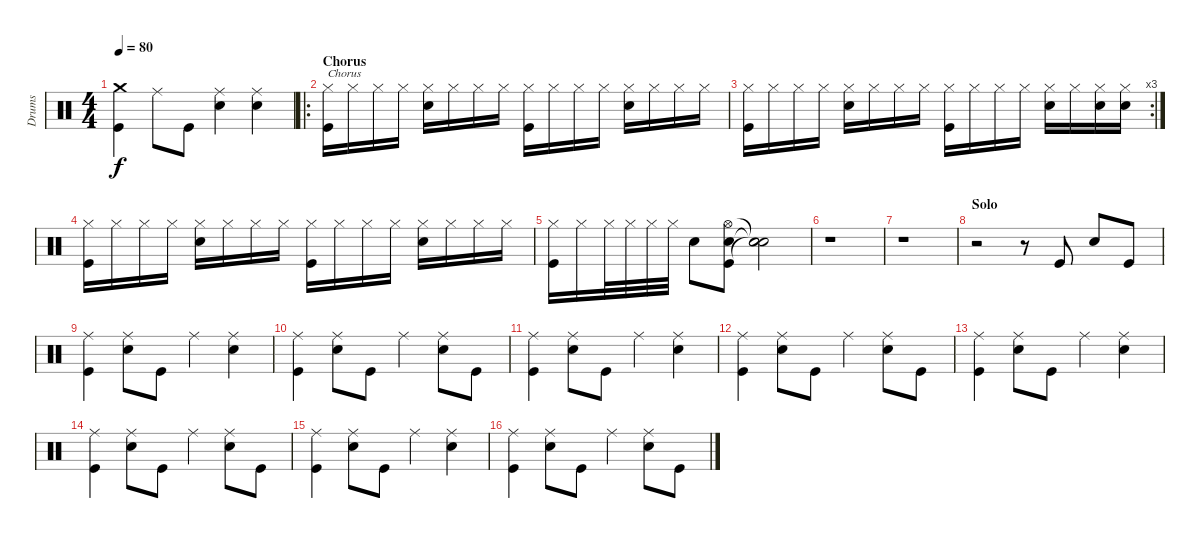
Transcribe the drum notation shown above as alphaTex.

\track ("Drums" "Drums") {instrument percussion}
\staff {score}
\articulation defaults
\ts (4 4)
\tempo 80
\clef neutral
\ks c
("Crash medium (hit)" "Kick (hit)").4{dy f} "Ride (middle)".8 "Kick (hit)".8 ("Ride (middle)" "Snare (hit) 2").4 ("Ride (middle)" "Snare (hit) 2").4 |
\ro
\section ("" "Chorus")
("Hi-Hat (closed)" "Kick (hit)").16{txt "Chorus"} "Hi-Hat (closed)".16 "Hi-Hat (closed)".16 "Hi-Hat (closed)".16 ("Hi-Hat (closed)" "Snare (hit) 2").16 "Hi-Hat (closed)".16 "Hi-Hat (closed)".16 "Hi-Hat (closed)".16 ("Hi-Hat (closed)" "Kick (hit)").16 "Hi-Hat (closed)".16 "Hi-Hat (closed)".16 "Hi-Hat (closed)".16 ("Hi-Hat (closed)" "Snare (hit) 2").16 "Hi-Hat (closed)".16 "Hi-Hat (closed)".16 "Hi-Hat (closed)".16 |
\rc 3
("Hi-Hat (closed)" "Kick (hit)").16 "Hi-Hat (closed)".16 "Hi-Hat (closed)".16 "Hi-Hat (closed)".16 ("Hi-Hat (closed)" "Snare (hit) 2").16 "Hi-Hat (closed)".16 "Hi-Hat (closed)".16 "Hi-Hat (closed)".16 ("Hi-Hat (closed)" "Kick (hit)").16 "Hi-Hat (closed)".16 "Hi-Hat (closed)".16 "Hi-Hat (closed)".16 ("Hi-Hat (closed)" "Snare (hit) 2").16 "Hi-Hat (closed)".16 ("Hi-Hat (closed)" "Snare (hit) 2").16 ("Hi-Hat (closed)" "Snare (hit) 2").16 |
("Hi-Hat (closed)" "Kick (hit)").16 "Hi-Hat (closed)".16 "Hi-Hat (closed)".16 "Hi-Hat (closed)".16 ("Hi-Hat (closed)" "Snare (hit) 2").16 "Hi-Hat (closed)".16 "Hi-Hat (closed)".16 "Hi-Hat (closed)".16 ("Hi-Hat (closed)" "Kick (hit)").16 "Hi-Hat (closed)".16 "Hi-Hat (closed)".16 "Hi-Hat (closed)".16 ("Hi-Hat (closed)" "Snare (hit) 2").16 "Hi-Hat (closed)".16 "Hi-Hat (closed)".16 "Hi-Hat (closed)".16 |
("Hi-Hat (closed)" "Kick (hit)").16 "Hi-Hat (closed)".16 "Hi-Hat (closed)".32 "Hi-Hat (closed)".32 "Hi-Hat (closed)".32 "Hi-Hat (closed)".32 "Snare (hit) 2".8 ("Hi-Hat (open)" "Snare (hit) 2" "Kick (hit)").8 ("Snare (hit)"{t} "Snare (hit)"{t} "Snare (hit)"{t}).2 |
r.1 |
r.1 |
\section ("" "Solo")
r.2 r.8 "Kick (hit)".8 "Snare (hit) 2".8 "Kick (hit)".8 |
("Ride (middle)" "Kick (hit)").4 ("Ride (middle)" "Snare (hit) 2").8 "Kick (hit)".8 "Ride (middle)".4 ("Ride (middle)" "Snare (hit) 2").4 |
("Ride (middle)" "Kick (hit)").4 ("Ride (middle)" "Snare (hit) 2").8 "Kick (hit)".8 "Ride (middle)".4 ("Ride (middle)" "Snare (hit) 2").8 "Kick (hit)".8 |
("Ride (middle)" "Kick (hit)").4 ("Ride (middle)" "Snare (hit) 2").8 "Kick (hit)".8 "Ride (middle)".4 ("Ride (middle)" "Snare (hit) 2").4 |
("Ride (middle)" "Kick (hit)").4 ("Ride (middle)" "Snare (hit) 2").8 "Kick (hit)".8 "Ride (middle)".4 ("Ride (middle)" "Snare (hit) 2").8 "Kick (hit)".8 |
("Ride (middle)" "Kick (hit)").4 ("Ride (middle)" "Snare (hit) 2").8 "Kick (hit)".8 "Ride (middle)".4 ("Ride (middle)" "Snare (hit) 2").4 |
("Ride (middle)" "Kick (hit)").4 ("Ride (middle)" "Snare (hit) 2").8 "Kick (hit)".8 "Ride (middle)".4 ("Ride (middle)" "Snare (hit) 2").8 "Kick (hit)".8 |
("Ride (middle)" "Kick (hit)").4 ("Ride (middle)" "Snare (hit) 2").8 "Kick (hit)".8 "Ride (middle)".4 ("Ride (middle)" "Snare (hit) 2").4 |
("Ride (middle)" "Kick (hit)").4 ("Ride (middle)" "Snare (hit) 2").8 "Kick (hit)".8 "Ride (middle)".4 ("Ride (middle)" "Snare (hit) 2").8 "Kick (hit)".8
